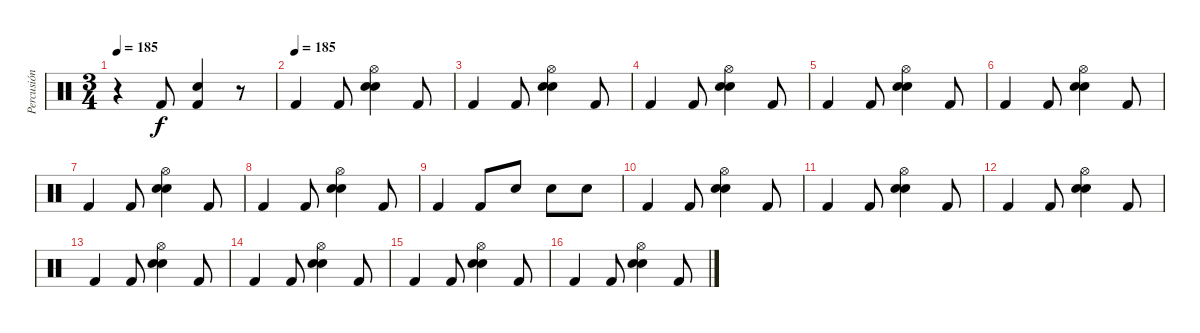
\track ("Percusión" "Percusión") {instrument percussion}
\staff {score}
\articulation defaults
\ts (3 4)
\tempo 185
\clef neutral
\ks c
r.4{dy f} "Kick (hit) 2".8 ("Electric Snare (hit)" "Kick (hit) 2").4 r.8 |
\tempo (185)
"Kick (hit) 2".4 "Kick (hit) 2".8 ("Hi-Hat (open)" "Electric Snare (hit)" "Snare (hit) 2").4 "Kick (hit) 2".8 |
"Kick (hit) 2".4 "Kick (hit) 2".8 ("Hi-Hat (open)" "Electric Snare (hit)" "Snare (hit) 2").4 "Kick (hit) 2".8 |
"Kick (hit) 2".4 "Kick (hit) 2".8 ("Hi-Hat (open)" "Electric Snare (hit)" "Snare (hit) 2").4 "Kick (hit) 2".8 |
"Kick (hit) 2".4 "Kick (hit) 2".8 ("Hi-Hat (open)" "Electric Snare (hit)" "Snare (hit) 2").4 "Kick (hit) 2".8 |
"Kick (hit) 2".4 "Kick (hit) 2".8 ("Hi-Hat (open)" "Electric Snare (hit)" "Snare (hit) 2").4 "Kick (hit) 2".8 |
"Kick (hit) 2".4 "Kick (hit) 2".8 ("Hi-Hat (open)" "Electric Snare (hit)" "Snare (hit) 2").4 "Kick (hit) 2".8 |
"Kick (hit) 2".4 "Kick (hit) 2".8 ("Hi-Hat (open)" "Electric Snare (hit)" "Snare (hit) 2").4 "Kick (hit) 2".8 |
"Kick (hit) 2".4 "Kick (hit) 2".8 "Electric Snare (hit)".8 "Electric Snare (hit)".8 "Electric Snare (hit)".8 |
"Kick (hit) 2".4 "Kick (hit) 2".8 ("Hi-Hat (open)" "Electric Snare (hit)" "Snare (hit) 2").4 "Kick (hit) 2".8 |
"Kick (hit) 2".4 "Kick (hit) 2".8 ("Hi-Hat (open)" "Electric Snare (hit)" "Snare (hit) 2").4 "Kick (hit) 2".8 |
"Kick (hit) 2".4 "Kick (hit) 2".8 ("Hi-Hat (open)" "Electric Snare (hit)" "Snare (hit) 2").4 "Kick (hit) 2".8 |
"Kick (hit) 2".4 "Kick (hit) 2".8 ("Hi-Hat (open)" "Electric Snare (hit)" "Snare (hit) 2").4 "Kick (hit) 2".8 |
"Kick (hit) 2".4 "Kick (hit) 2".8 ("Hi-Hat (open)" "Electric Snare (hit)" "Snare (hit) 2").4 "Kick (hit) 2".8 |
"Kick (hit) 2".4 "Kick (hit) 2".8 ("Hi-Hat (open)" "Electric Snare (hit)" "Snare (hit) 2").4 "Kick (hit) 2".8 |
"Kick (hit) 2".4 "Kick (hit) 2".8 ("Hi-Hat (open)" "Electric Snare (hit)" "Snare (hit) 2").4 "Kick (hit) 2".8
